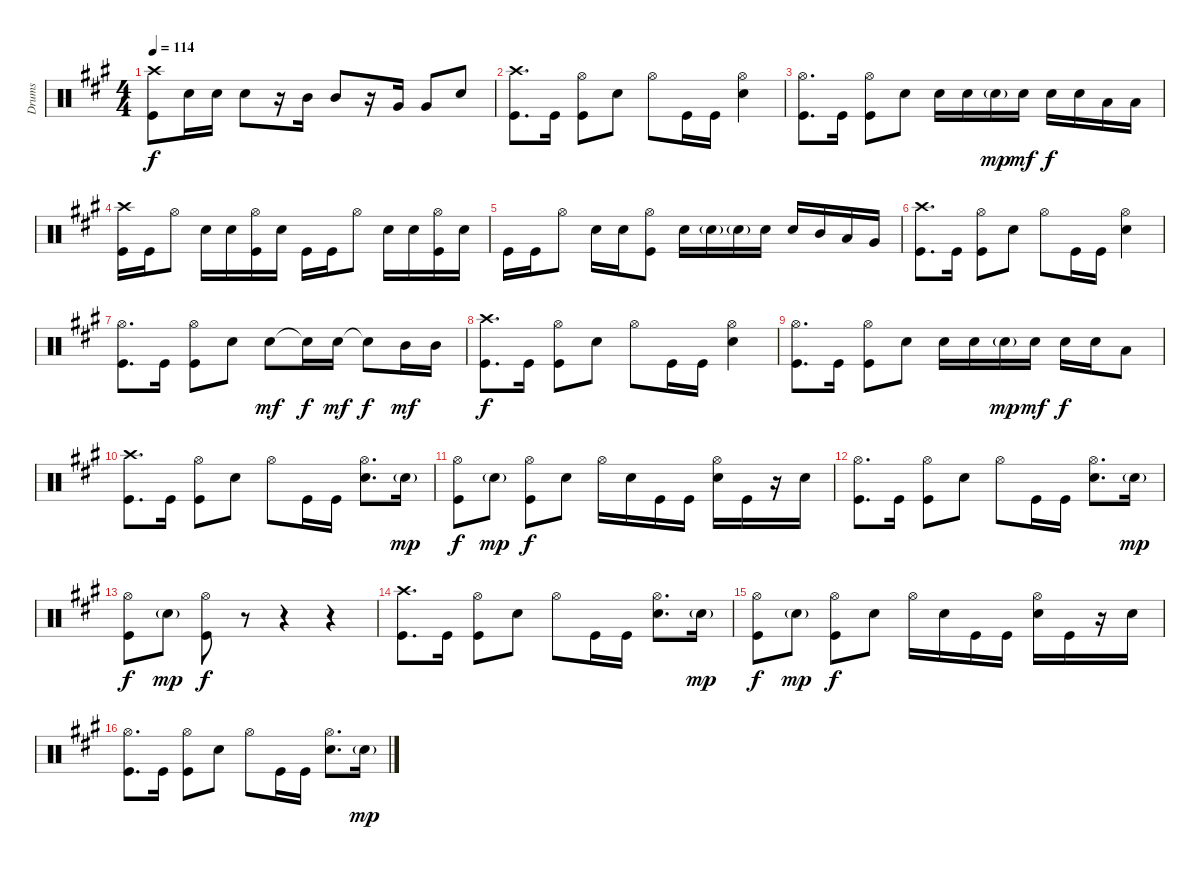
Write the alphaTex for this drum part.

\track ("Drums" "Drums") {instrument percussion}
\staff {score}
\articulation defaults
\ts (4 4)
\tempo 114
\clef neutral
\ks a
("Crash high (hit)" "Kick (hit)").8{dy f} "Electric Snare (hit)".16 "Electric Snare (hit)".16 "Electric Snare (hit)".8 r.16 "Mid Tom (hit)".16 "Mid Tom (hit)".8 r.16 "Very Low Tom (hit)".16 "Very Low Tom (hit)".8 "Electric Snare (hit)".8 |
("Crash high (hit)" "Kick (hit)").8{d} "Kick (hit)".16 ("Hi-Hat (open)" "Kick (hit)").8 "Electric Snare (hit)".8 "Hi-Hat (open)".8 "Kick (hit)".16 "Kick (hit)".16 ("Hi-Hat (open)" "Electric Snare (hit)").4 |
("Hi-Hat (open)" "Kick (hit)").8{d} "Kick (hit)".16 ("Hi-Hat (open)" "Kick (hit)").8 "Electric Snare (hit)".8 "Electric Snare (hit)".16 "Electric Snare (hit)".16 "Electric Snare (hit)"{g}.16{dy mp} "Electric Snare (hit)".16{dy mf} "Electric Snare (hit)".16{dy f} "Electric Snare (hit)".16 "Low Tom (hit)".16 "Low Tom (hit)".16 |
("Crash high (hit)" "Kick (hit)").16 "Kick (hit)".16 "Hi-Hat (open)".8 "Electric Snare (hit)".16 "Electric Snare (hit)".16 ("Hi-Hat (open)" "Kick (hit)").16 "Electric Snare (hit)".16 "Kick (hit)".16 "Kick (hit)".16 "Hi-Hat (open)".8 "Electric Snare (hit)".16 "Electric Snare (hit)".16 ("Hi-Hat (open)" "Kick (hit)").16 "Electric Snare (hit)".16 |
"Kick (hit)".16 "Kick (hit)".16 "Hi-Hat (open)".8 "Electric Snare (hit)".16 "Electric Snare (hit)".16 ("Hi-Hat (open)" "Kick (hit)").8 "Electric Snare (hit)".16 "Electric Snare (hit)"{g}.16 "Electric Snare (hit)"{g}.16 "Electric Snare (hit)".16 "Electric Snare (hit)".16 "Mid Tom (hit)".16 "Low Tom (hit)".16 "Very Low Tom (hit)".16 |
("Crash high (hit)" "Kick (hit)").8{d} "Kick (hit)".16 ("Hi-Hat (open)" "Kick (hit)").8 "Electric Snare (hit)".8 "Hi-Hat (open)".8 "Kick (hit)".16 "Kick (hit)".16 ("Hi-Hat (open)" "Electric Snare (hit)").4 |
("Hi-Hat (open)" "Kick (hit)").8{d} "Kick (hit)".16 ("Hi-Hat (open)" "Kick (hit)").8 "Electric Snare (hit)".8 "Electric Snare (hit)".8{dy mf} "Snare (hit)"{t}.16{dy f} "Electric Snare (hit)".16{dy mf} "Snare (hit)"{t}.8{dy f} "Mid Tom (hit)".16{dy mf} "Mid Tom (hit)".16 |
("Crash high (hit)" "Kick (hit)").8{d dy f} "Kick (hit)".16 ("Hi-Hat (open)" "Kick (hit)").8 "Electric Snare (hit)".8 "Hi-Hat (open)".8 "Kick (hit)".16 "Kick (hit)".16 ("Hi-Hat (open)" "Electric Snare (hit)").4 |
("Hi-Hat (open)" "Kick (hit)").8{d} "Kick (hit)".16 ("Hi-Hat (open)" "Kick (hit)").8 "Electric Snare (hit)".8 "Electric Snare (hit)".16 "Electric Snare (hit)".16 "Electric Snare (hit)"{g}.16{dy mp} "Electric Snare (hit)".16{dy mf} "Electric Snare (hit)".16{dy f} "Electric Snare (hit)".16 "Low Tom (hit)".8 |
("Crash high (hit)" "Kick (hit)").8{d} "Kick (hit)".16 ("Hi-Hat (open)" "Kick (hit)").8 "Electric Snare (hit)".8 "Hi-Hat (open)".8 "Kick (hit)".16 "Kick (hit)".16 ("Hi-Hat (open)" "Electric Snare (hit)").8{d} "Electric Snare (hit)"{g}.16{dy mp} |
("Hi-Hat (open)" "Kick (hit)").8{dy f} "Electric Snare (hit)"{g}.8{dy mp} ("Hi-Hat (open)" "Kick (hit)").8{dy f} "Electric Snare (hit)".8 "Hi-Hat (open)".16 "Electric Snare (hit)".16 "Kick (hit)".16 "Kick (hit)".16 ("Hi-Hat (open)" "Electric Snare (hit)").16 "Kick (hit)".16 r.16 "Electric Snare (hit)".16 |
("Hi-Hat (open)" "Kick (hit)").8{d} "Kick (hit)".16 ("Hi-Hat (open)" "Kick (hit)").8 "Electric Snare (hit)".8 "Hi-Hat (open)".8 "Kick (hit)".16 "Kick (hit)".16 ("Hi-Hat (open)" "Electric Snare (hit)").8{d} "Electric Snare (hit)"{g}.16{dy mp} |
("Hi-Hat (open)" "Kick (hit)").8{dy f} "Electric Snare (hit)"{g}.8{dy mp} ("Hi-Hat (open)" "Kick (hit)").8{dy f} r.8 r.4 r.4 |
("Crash high (hit)" "Kick (hit)").8{d} "Kick (hit)".16 ("Hi-Hat (open)" "Kick (hit)").8 "Electric Snare (hit)".8 "Hi-Hat (open)".8 "Kick (hit)".16 "Kick (hit)".16 ("Hi-Hat (open)" "Electric Snare (hit)").8{d} "Electric Snare (hit)"{g}.16{dy mp} |
("Hi-Hat (open)" "Kick (hit)").8{dy f} "Electric Snare (hit)"{g}.8{dy mp} ("Hi-Hat (open)" "Kick (hit)").8{dy f} "Electric Snare (hit)".8 "Hi-Hat (open)".16 "Electric Snare (hit)".16 "Kick (hit)".16 "Kick (hit)".16 ("Hi-Hat (open)" "Electric Snare (hit)").16 "Kick (hit)".16 r.16 "Electric Snare (hit)".16 |
("Hi-Hat (open)" "Kick (hit)").8{d} "Kick (hit)".16 ("Hi-Hat (open)" "Kick (hit)").8 "Electric Snare (hit)".8 "Hi-Hat (open)".8 "Kick (hit)".16 "Kick (hit)".16 ("Hi-Hat (open)" "Electric Snare (hit)").8{d} "Electric Snare (hit)"{g}.16{dy mp}
